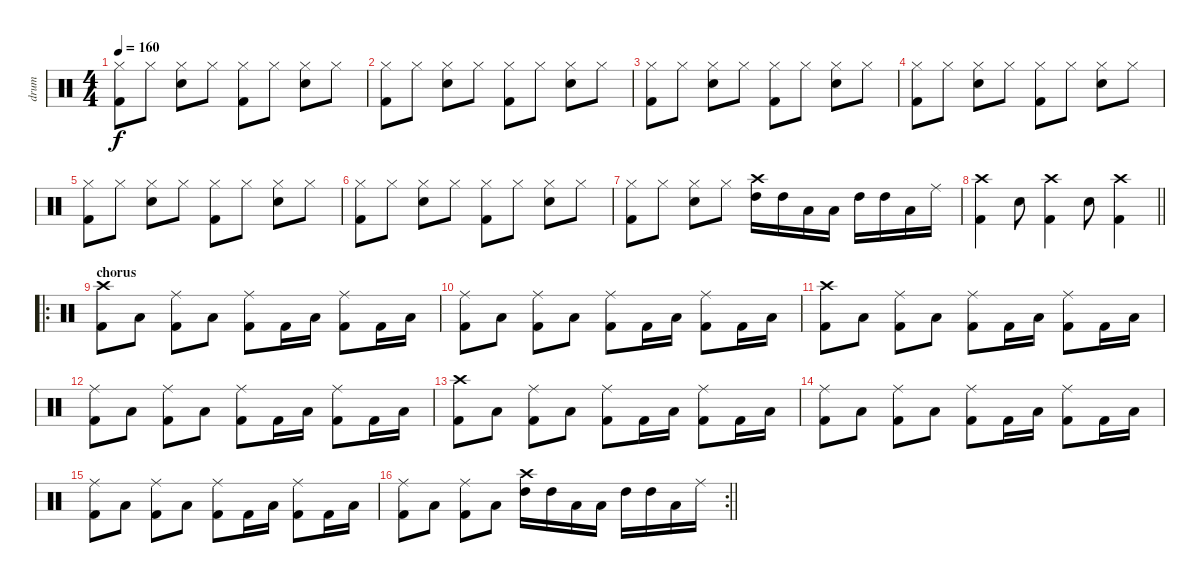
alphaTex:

\track ("drum" "drum") {instrument percussion}
\staff {score}
\articulation defaults
\ts (4 4)
\tempo 160
\clef neutral
\ks c
("Hi-Hat (closed)" "Kick (hit) 2").8{dy f} "Hi-Hat (closed)".8 ("Hi-Hat (closed)" "Snare (hit) 2").8 "Hi-Hat (closed)".8 ("Hi-Hat (closed)" "Kick (hit) 2").8 "Hi-Hat (closed)".8 ("Hi-Hat (closed)" "Snare (hit) 2").8 "Hi-Hat (closed)".8 |
("Hi-Hat (closed)" "Kick (hit) 2").8 "Hi-Hat (closed)".8 ("Hi-Hat (closed)" "Snare (hit) 2").8 "Hi-Hat (closed)".8 ("Hi-Hat (closed)" "Kick (hit) 2").8 "Hi-Hat (closed)".8 ("Hi-Hat (closed)" "Snare (hit) 2").8 "Hi-Hat (closed)".8 |
("Hi-Hat (closed)" "Kick (hit) 2").8 "Hi-Hat (closed)".8 ("Hi-Hat (closed)" "Snare (hit) 2").8 "Hi-Hat (closed)".8 ("Hi-Hat (closed)" "Kick (hit) 2").8 "Hi-Hat (closed)".8 ("Hi-Hat (closed)" "Snare (hit) 2").8 "Hi-Hat (closed)".8 |
("Hi-Hat (closed)" "Kick (hit) 2").8 "Hi-Hat (closed)".8 ("Hi-Hat (closed)" "Snare (hit) 2").8 "Hi-Hat (closed)".8 ("Hi-Hat (closed)" "Kick (hit) 2").8 "Hi-Hat (closed)".8 ("Hi-Hat (closed)" "Snare (hit) 2").8 "Hi-Hat (closed)".8 |
("Hi-Hat (closed)" "Kick (hit) 2").8 "Hi-Hat (closed)".8 ("Hi-Hat (closed)" "Snare (hit) 2").8 "Hi-Hat (closed)".8 ("Hi-Hat (closed)" "Kick (hit) 2").8 "Hi-Hat (closed)".8 ("Hi-Hat (closed)" "Snare (hit) 2").8 "Hi-Hat (closed)".8 |
("Hi-Hat (closed)" "Kick (hit) 2").8 "Hi-Hat (closed)".8 ("Hi-Hat (closed)" "Snare (hit) 2").8 "Hi-Hat (closed)".8 ("Hi-Hat (closed)" "Kick (hit) 2").8 "Hi-Hat (closed)".8 ("Hi-Hat (closed)" "Snare (hit) 2").8 "Hi-Hat (closed)".8 |
("Hi-Hat (closed)" "Kick (hit) 2").8 "Hi-Hat (closed)".8 ("Hi-Hat (closed)" "Snare (hit) 2").8 "Hi-Hat (closed)".8 ("Crash high (hit)" "High Tom (hit)").16 "High Tom (hit)".16 "Low Tom (hit)".16 "Low Floor Tom (hit)".16 "High Tom (hit)".16 "High Tom (hit)".16 "Low Tom (hit)".16 "Ride (middle)".16 |
\barLineRight lightlight
("Crash high (hit)" "Kick (hit) 2").4 "Snare (hit) 2".8 ("Crash high (hit)" "Kick (hit) 2").4 "Snare (hit) 2".8 ("Crash high (hit)" "Kick (hit) 2").4 |
\ro
\section ("" "chorus")
("Crash high (hit)" "Kick (hit) 2").8 "Low Floor Tom (hit)".8 ("Ride (middle)" "Kick (hit) 2").8 "Low Floor Tom (hit)".8 ("Ride (middle)" "Kick (hit) 2").8 "Kick (hit) 2".16 "Low Floor Tom (hit)".16 ("Ride (middle)" "Kick (hit) 2").8 "Kick (hit) 2".16 "Low Floor Tom (hit)".16 |
("Ride (middle)" "Kick (hit) 2").8 "Low Floor Tom (hit)".8 ("Ride (middle)" "Kick (hit) 2").8 "Low Floor Tom (hit)".8 ("Ride (middle)" "Kick (hit) 2").8 "Kick (hit) 2".16 "Low Floor Tom (hit)".16 ("Ride (middle)" "Kick (hit) 2").8 "Kick (hit) 2".16 "Low Floor Tom (hit)".16 |
("Crash high (hit)" "Kick (hit) 2").8 "Low Floor Tom (hit)".8 ("Ride (middle)" "Kick (hit) 2").8 "Low Floor Tom (hit)".8 ("Ride (middle)" "Kick (hit) 2").8 "Kick (hit) 2".16 "Low Floor Tom (hit)".16 ("Ride (middle)" "Kick (hit) 2").8 "Kick (hit) 2".16 "Low Floor Tom (hit)".16 |
("Ride (middle)" "Kick (hit) 2").8 "Low Floor Tom (hit)".8 ("Ride (middle)" "Kick (hit) 2").8 "Low Floor Tom (hit)".8 ("Ride (middle)" "Kick (hit) 2").8 "Kick (hit) 2".16 "Low Floor Tom (hit)".16 ("Ride (middle)" "Kick (hit) 2").8 "Kick (hit) 2".16 "Low Floor Tom (hit)".16 |
("Crash high (hit)" "Kick (hit) 2").8 "Low Floor Tom (hit)".8 ("Ride (middle)" "Kick (hit) 2").8 "Low Floor Tom (hit)".8 ("Ride (middle)" "Kick (hit) 2").8 "Kick (hit) 2".16 "Low Floor Tom (hit)".16 ("Ride (middle)" "Kick (hit) 2").8 "Kick (hit) 2".16 "Low Floor Tom (hit)".16 |
("Ride (middle)" "Kick (hit) 2").8 "Low Floor Tom (hit)".8 ("Ride (middle)" "Kick (hit) 2").8 "Low Floor Tom (hit)".8 ("Ride (middle)" "Kick (hit) 2").8 "Kick (hit) 2".16 "Low Floor Tom (hit)".16 ("Ride (middle)" "Kick (hit) 2").8 "Kick (hit) 2".16 "Low Floor Tom (hit)".16 |
("Ride (middle)" "Kick (hit) 2").8 "Low Floor Tom (hit)".8 ("Ride (middle)" "Kick (hit) 2").8 "Low Floor Tom (hit)".8 ("Ride (middle)" "Kick (hit) 2").8 "Kick (hit) 2".16 "Low Floor Tom (hit)".16 ("Ride (middle)" "Kick (hit) 2").8 "Kick (hit) 2".16 "Low Floor Tom (hit)".16 |
\rc 2
\barLineRight lightlight
("Ride (middle)" "Kick (hit) 2").8 "Low Floor Tom (hit)".8 ("Ride (middle)" "Kick (hit) 2").8 "Low Floor Tom (hit)".8 ("Crash high (hit)" "High Tom (hit)").16 "High Tom (hit)".16 "Low Tom (hit)".16 "Low Floor Tom (hit)".16 "High Tom (hit)".16 "High Tom (hit)".16 "Low Tom (hit)".16 "Ride (middle)".16
